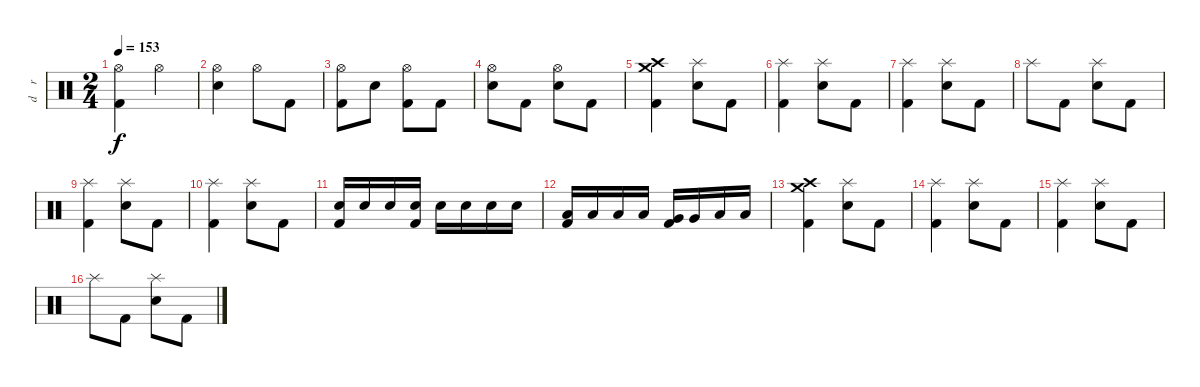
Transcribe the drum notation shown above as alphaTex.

\track ("d    r     u    m    s" "d    r    ") {instrument percussion}
\staff {score}
\articulation defaults
\ts (2 4)
\tempo 153
\clef neutral
\ks c
("Hi-Hat (open)" "Kick (hit) 2").4{dy f} "Hi-Hat (open)".4 |
("Hi-Hat (open)" "Electric Snare (hit)").4 "Hi-Hat (open)".8 "Kick (hit) 2".8 |
("Hi-Hat (open)" "Kick (hit) 2").8 "Electric Snare (hit)".8 ("Hi-Hat (open)" "Kick (hit) 2").8 "Kick (hit) 2".8 |
("Hi-Hat (open)" "Electric Snare (hit)").8 "Kick (hit) 2".8 ("Hi-Hat (open)" "Electric Snare (hit)").8 "Kick (hit) 2".8 |
("Crash high (hit)" "Crash medium (hit)" "Kick (hit) 2").4 ("Splash (hit)" "Electric Snare (hit)").8 "Kick (hit) 2".8 |
("Splash (hit)" "Kick (hit) 2").4 ("Splash (hit)" "Electric Snare (hit)").8 "Kick (hit) 2".8 |
("Splash (hit)" "Kick (hit) 2").4 ("Splash (hit)" "Electric Snare (hit)").8 "Kick (hit) 2".8 |
"Splash (hit)".8 "Kick (hit) 2".8 ("Splash (hit)" "Electric Snare (hit)").8 "Kick (hit) 2".8 |
("Splash (hit)" "Kick (hit) 2").4 ("Splash (hit)" "Electric Snare (hit)").8 "Kick (hit) 2".8 |
("Splash (hit)" "Kick (hit) 2").4 ("Splash (hit)" "Electric Snare (hit)").8 "Kick (hit) 2".8 |
("Electric Snare (hit)" "Kick (hit) 2").16 "Electric Snare (hit)".16 "Electric Snare (hit)".16 ("Electric Snare (hit)" "Kick (hit) 2").16 "Electric Snare (hit)".16 "Electric Snare (hit)".16 "Electric Snare (hit)".16 "Electric Snare (hit)".16 |
("Low Tom (hit)" "Kick (hit) 2").16 "Low Tom (hit)".16 "Low Tom (hit)".16 "Low Tom (hit)".16 ("Very Low Tom (hit)" "Kick (hit) 2").16 "Very Low Tom (hit)".16 "Low Floor Tom (hit)".16 "Low Floor Tom (hit)".16 |
("Crash high (hit)" "Crash medium (hit)" "Kick (hit) 2").4 ("Splash (hit)" "Electric Snare (hit)").8 "Kick (hit) 2".8 |
("Splash (hit)" "Kick (hit) 2").4 ("Splash (hit)" "Electric Snare (hit)").8 "Kick (hit) 2".8 |
("Splash (hit)" "Kick (hit) 2").4 ("Splash (hit)" "Electric Snare (hit)").8 "Kick (hit) 2".8 |
"Splash (hit)".8 "Kick (hit) 2".8 ("Splash (hit)" "Electric Snare (hit)").8 "Kick (hit) 2".8
